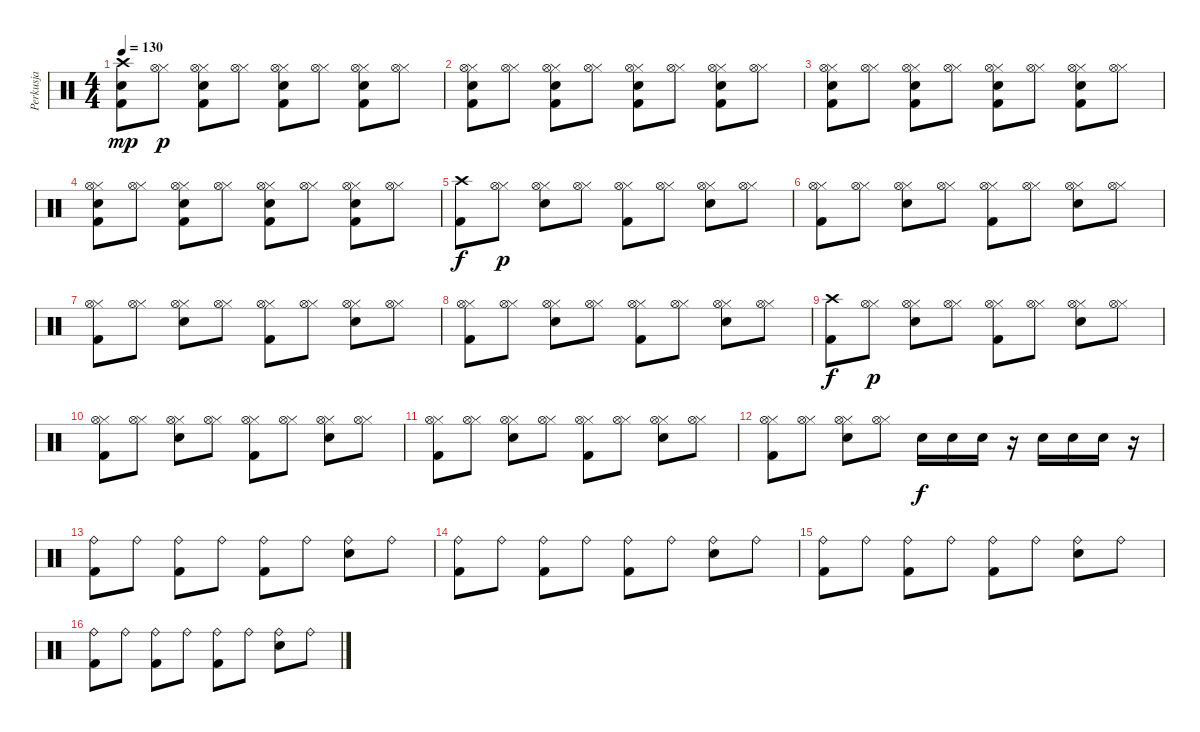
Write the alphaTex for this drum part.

\track ("Perkusja" "Perkusja") {instrument percussion}
\staff {score}
\articulation defaults
\ts (4 4)
\tempo 130
\clef neutral
\ks c
("Kick (hit) 2" "Electric Snare (hit)" "Crash high (hit)").8{dy mp} ("Hi-Hat (closed)" "Hi-Hat (open)").8{dy p} ("Kick (hit) 2" "Electric Snare (hit)" "Hi-Hat (closed)" "Hi-Hat (open)").8 ("Hi-Hat (closed)" "Hi-Hat (open)").8 ("Kick (hit) 2" "Electric Snare (hit)" "Hi-Hat (closed)" "Hi-Hat (open)").8 ("Hi-Hat (closed)" "Hi-Hat (open)").8 ("Kick (hit) 2" "Electric Snare (hit)" "Hi-Hat (closed)" "Hi-Hat (open)").8 ("Hi-Hat (closed)" "Hi-Hat (open)").8 |
("Kick (hit) 2" "Electric Snare (hit)" "Hi-Hat (closed)" "Hi-Hat (open)").8 ("Hi-Hat (closed)" "Hi-Hat (open)").8 ("Kick (hit) 2" "Electric Snare (hit)" "Hi-Hat (closed)" "Hi-Hat (open)").8 ("Hi-Hat (closed)" "Hi-Hat (open)").8 ("Kick (hit) 2" "Electric Snare (hit)" "Hi-Hat (closed)" "Hi-Hat (open)").8 ("Hi-Hat (closed)" "Hi-Hat (open)").8 ("Kick (hit) 2" "Electric Snare (hit)" "Hi-Hat (closed)" "Hi-Hat (open)").8 ("Hi-Hat (closed)" "Hi-Hat (open)").8 |
("Kick (hit) 2" "Electric Snare (hit)" "Hi-Hat (closed)" "Hi-Hat (open)").8 ("Hi-Hat (closed)" "Hi-Hat (open)").8 ("Kick (hit) 2" "Electric Snare (hit)" "Hi-Hat (closed)" "Hi-Hat (open)").8 ("Hi-Hat (closed)" "Hi-Hat (open)").8 ("Kick (hit) 2" "Electric Snare (hit)" "Hi-Hat (closed)" "Hi-Hat (open)").8 ("Hi-Hat (closed)" "Hi-Hat (open)").8 ("Kick (hit) 2" "Electric Snare (hit)" "Hi-Hat (closed)" "Hi-Hat (open)").8 ("Hi-Hat (closed)" "Hi-Hat (open)").8 |
("Kick (hit) 2" "Electric Snare (hit)" "Hi-Hat (closed)" "Hi-Hat (open)").8 ("Hi-Hat (closed)" "Hi-Hat (open)").8 ("Kick (hit) 2" "Electric Snare (hit)" "Hi-Hat (closed)" "Hi-Hat (open)").8 ("Hi-Hat (closed)" "Hi-Hat (open)").8 ("Kick (hit) 2" "Electric Snare (hit)" "Hi-Hat (closed)" "Hi-Hat (open)").8 ("Hi-Hat (closed)" "Hi-Hat (open)").8 ("Kick (hit) 2" "Electric Snare (hit)" "Hi-Hat (closed)" "Hi-Hat (open)").8 ("Hi-Hat (closed)" "Hi-Hat (open)").8 |
("Kick (hit) 2" "Crash high (hit)").8{dy f} ("Hi-Hat (closed)" "Hi-Hat (open)").8{dy p} ("Electric Snare (hit)" "Hi-Hat (closed)" "Hi-Hat (open)").8 ("Hi-Hat (closed)" "Hi-Hat (open)").8 ("Kick (hit) 2" "Hi-Hat (closed)" "Hi-Hat (open)").8 ("Hi-Hat (closed)" "Hi-Hat (open)").8 ("Electric Snare (hit)" "Hi-Hat (closed)" "Hi-Hat (open)").8 ("Hi-Hat (closed)" "Hi-Hat (open)").8 |
("Kick (hit) 2" "Hi-Hat (closed)" "Hi-Hat (open)").8 ("Hi-Hat (closed)" "Hi-Hat (open)").8 ("Electric Snare (hit)" "Hi-Hat (closed)" "Hi-Hat (open)").8 ("Hi-Hat (closed)" "Hi-Hat (open)").8 ("Kick (hit) 2" "Hi-Hat (closed)" "Hi-Hat (open)").8 ("Hi-Hat (closed)" "Hi-Hat (open)").8 ("Electric Snare (hit)" "Hi-Hat (closed)" "Hi-Hat (open)").8 ("Hi-Hat (closed)" "Hi-Hat (open)").8 |
("Kick (hit) 2" "Hi-Hat (closed)" "Hi-Hat (open)").8 ("Hi-Hat (closed)" "Hi-Hat (open)").8 ("Electric Snare (hit)" "Hi-Hat (closed)" "Hi-Hat (open)").8 ("Hi-Hat (closed)" "Hi-Hat (open)").8 ("Kick (hit) 2" "Hi-Hat (closed)" "Hi-Hat (open)").8 ("Hi-Hat (closed)" "Hi-Hat (open)").8 ("Electric Snare (hit)" "Hi-Hat (closed)" "Hi-Hat (open)").8 ("Hi-Hat (closed)" "Hi-Hat (open)").8 |
("Kick (hit) 2" "Hi-Hat (closed)" "Hi-Hat (open)").8 ("Hi-Hat (closed)" "Hi-Hat (open)").8 ("Electric Snare (hit)" "Hi-Hat (closed)" "Hi-Hat (open)").8 ("Hi-Hat (closed)" "Hi-Hat (open)").8 ("Kick (hit) 2" "Hi-Hat (closed)" "Hi-Hat (open)").8 ("Hi-Hat (closed)" "Hi-Hat (open)").8 ("Electric Snare (hit)" "Hi-Hat (closed)" "Hi-Hat (open)").8 ("Hi-Hat (closed)" "Hi-Hat (open)").8 |
("Kick (hit) 2" "Crash high (hit)").8{dy f} ("Hi-Hat (closed)" "Hi-Hat (open)").8{dy p} ("Electric Snare (hit)" "Hi-Hat (closed)" "Hi-Hat (open)").8 ("Hi-Hat (closed)" "Hi-Hat (open)").8 ("Kick (hit) 2" "Hi-Hat (closed)" "Hi-Hat (open)").8 ("Hi-Hat (closed)" "Hi-Hat (open)").8 ("Electric Snare (hit)" "Hi-Hat (closed)" "Hi-Hat (open)").8 ("Hi-Hat (closed)" "Hi-Hat (open)").8 |
("Kick (hit) 2" "Hi-Hat (closed)" "Hi-Hat (open)").8 ("Hi-Hat (closed)" "Hi-Hat (open)").8 ("Electric Snare (hit)" "Hi-Hat (closed)" "Hi-Hat (open)").8 ("Hi-Hat (closed)" "Hi-Hat (open)").8 ("Kick (hit) 2" "Hi-Hat (closed)" "Hi-Hat (open)").8 ("Hi-Hat (closed)" "Hi-Hat (open)").8 ("Electric Snare (hit)" "Hi-Hat (closed)" "Hi-Hat (open)").8 ("Hi-Hat (closed)" "Hi-Hat (open)").8 |
("Kick (hit) 2" "Hi-Hat (closed)" "Hi-Hat (open)").8 ("Hi-Hat (closed)" "Hi-Hat (open)").8 ("Electric Snare (hit)" "Hi-Hat (closed)" "Hi-Hat (open)").8 ("Hi-Hat (closed)" "Hi-Hat (open)").8 ("Kick (hit) 2" "Hi-Hat (closed)" "Hi-Hat (open)").8 ("Hi-Hat (closed)" "Hi-Hat (open)").8 ("Electric Snare (hit)" "Hi-Hat (closed)" "Hi-Hat (open)").8 ("Hi-Hat (closed)" "Hi-Hat (open)").8 |
("Kick (hit) 2" "Hi-Hat (closed)" "Hi-Hat (open)").8 ("Hi-Hat (closed)" "Hi-Hat (open)").8 ("Electric Snare (hit)" "Hi-Hat (closed)" "Hi-Hat (open)").8 ("Hi-Hat (closed)" "Hi-Hat (open)").8 "Electric Snare (hit)".16{dy f} "Electric Snare (hit)".16 "Electric Snare (hit)".16 r.16 "Electric Snare (hit)".16 "Electric Snare (hit)".16 "Electric Snare (hit)".16 r.16 |
("Kick (hit) 2" "Ride (bell)").8 "Ride (bell)".8 ("Kick (hit) 2" "Ride (bell)").8 "Ride (bell)".8 ("Kick (hit) 2" "Ride (bell)").8 "Ride (bell)".8 ("Electric Snare (hit)" "Ride (bell)").8 "Ride (bell)".8 |
("Kick (hit) 2" "Ride (bell)").8 "Ride (bell)".8 ("Kick (hit) 2" "Ride (bell)").8 "Ride (bell)".8 ("Kick (hit) 2" "Ride (bell)").8 "Ride (bell)".8 ("Electric Snare (hit)" "Ride (bell)").8 "Ride (bell)".8 |
("Kick (hit) 2" "Ride (bell)").8 "Ride (bell)".8 ("Kick (hit) 2" "Ride (bell)").8 "Ride (bell)".8 ("Kick (hit) 2" "Ride (bell)").8 "Ride (bell)".8 ("Electric Snare (hit)" "Ride (bell)").8 "Ride (bell)".8 |
("Kick (hit) 2" "Ride (bell)").8 "Ride (bell)".8 ("Kick (hit) 2" "Ride (bell)").8 "Ride (bell)".8 ("Kick (hit) 2" "Ride (bell)").8 "Ride (bell)".8 ("Electric Snare (hit)" "Ride (bell)").8 "Ride (bell)".8
